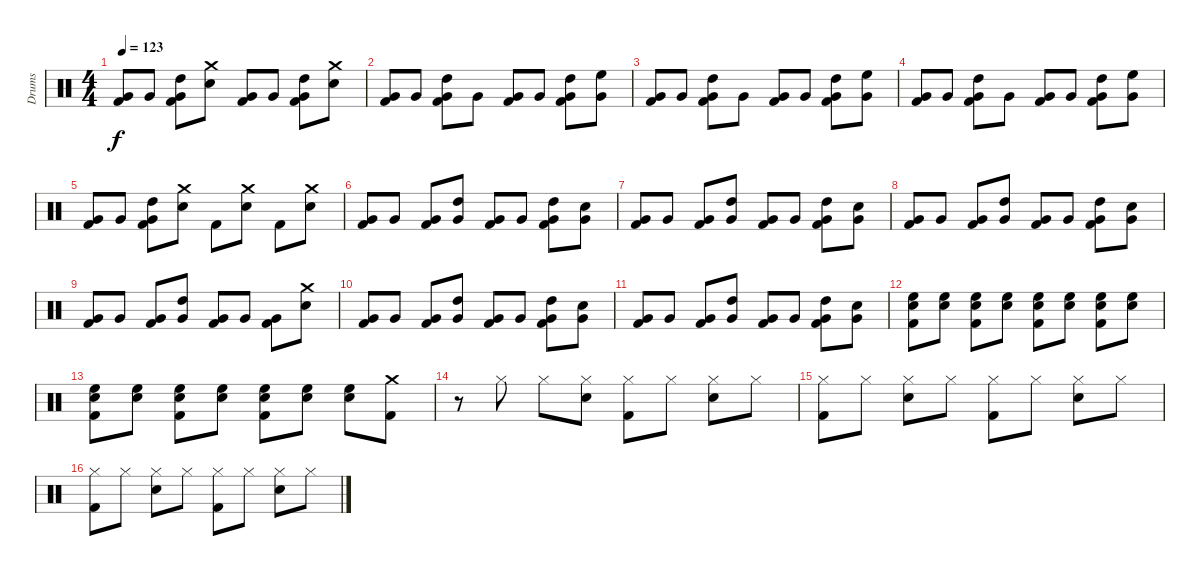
\track ("Drums" "Drums") {instrument percussion}
\staff {score}
\articulation defaults
\ts (4 4)
\tempo 123
\clef neutral
\ks c
("Very Low Tom (hit)" "Kick (hit) 2").8{dy f} "Very Low Tom (hit)".8 ("High Tom (hit)" "Very Low Tom (hit)" "Kick (hit) 2").8 ("Snare (hit) 2" "Crash medium (hit)").8 ("Very Low Tom (hit)" "Kick (hit) 2").8 "Very Low Tom (hit)".8 ("High Tom (hit)" "Very Low Tom (hit)" "Kick (hit) 2").8 ("Snare (hit) 2" "Crash medium (hit)").8 |
("Very Low Tom (hit)" "Kick (hit) 2").8 "Very Low Tom (hit)".8 ("High Tom (hit)" "Very Low Tom (hit)" "Kick (hit) 2").8 "Very Low Tom (hit)".8 ("Very Low Tom (hit)" "Kick (hit) 2").8 "Very Low Tom (hit)".8 ("High Tom (hit)" "Very Low Tom (hit)" "Kick (hit) 2").8 ("High Floor Tom (hit)" "Very Low Tom (hit)").8 |
("Very Low Tom (hit)" "Kick (hit) 2").8 "Very Low Tom (hit)".8 ("High Tom (hit)" "Very Low Tom (hit)" "Kick (hit) 2").8 "Very Low Tom (hit)".8 ("Very Low Tom (hit)" "Kick (hit) 2").8 "Very Low Tom (hit)".8 ("High Tom (hit)" "Very Low Tom (hit)" "Kick (hit) 2").8 ("High Floor Tom (hit)" "Very Low Tom (hit)").8 |
("Very Low Tom (hit)" "Kick (hit) 2").8 "Very Low Tom (hit)".8 ("High Tom (hit)" "Very Low Tom (hit)" "Kick (hit) 2").8 "Very Low Tom (hit)".8 ("Very Low Tom (hit)" "Kick (hit) 2").8 "Very Low Tom (hit)".8 ("High Tom (hit)" "Very Low Tom (hit)" "Kick (hit) 2").8 ("High Floor Tom (hit)" "Very Low Tom (hit)").8 |
("Very Low Tom (hit)" "Kick (hit) 2").8 "Very Low Tom (hit)".8 ("High Tom (hit)" "Very Low Tom (hit)" "Kick (hit) 2").8 ("Crash medium (hit)" "Snare (hit) 2").8 "Kick (hit) 2".8 ("Crash medium (hit)" "Snare (hit) 2").8 "Kick (hit) 2".8 ("Crash medium (hit)" "Snare (hit) 2").8 |
("Kick (hit) 2" "Very Low Tom (hit)").8 "Very Low Tom (hit)".8 ("Kick (hit) 2" "Very Low Tom (hit)").8 ("High Tom (hit)" "Very Low Tom (hit)").8 ("Kick (hit) 2" "Very Low Tom (hit)").8 "Very Low Tom (hit)".8 ("Kick (hit) 2" "High Tom (hit)" "Very Low Tom (hit)").8 ("Snare (hit) 2" "Very Low Tom (hit)").8 |
("Kick (hit) 2" "Very Low Tom (hit)").8 "Very Low Tom (hit)".8 ("Kick (hit) 2" "Very Low Tom (hit)").8 ("High Tom (hit)" "Very Low Tom (hit)").8 ("Kick (hit) 2" "Very Low Tom (hit)").8 "Very Low Tom (hit)".8 ("Kick (hit) 2" "High Tom (hit)" "Very Low Tom (hit)").8 ("Snare (hit) 2" "Very Low Tom (hit)").8 |
("Kick (hit) 2" "Very Low Tom (hit)").8 "Very Low Tom (hit)".8 ("Kick (hit) 2" "Very Low Tom (hit)").8 ("High Tom (hit)" "Very Low Tom (hit)").8 ("Kick (hit) 2" "Very Low Tom (hit)").8 "Very Low Tom (hit)".8 ("Kick (hit) 2" "High Tom (hit)" "Very Low Tom (hit)").8 ("Snare (hit) 2" "Very Low Tom (hit)").8 |
("Very Low Tom (hit)" "Kick (hit) 2").8 "Very Low Tom (hit)".8 ("Very Low Tom (hit)" "Kick (hit) 2").8 ("High Tom (hit)" "Very Low Tom (hit)").8 ("Very Low Tom (hit)" "Kick (hit) 2").8 "Very Low Tom (hit)".8 ("Very Low Tom (hit)" "Kick (hit) 2").8 ("Crash medium (hit)" "Snare (hit) 2").8 |
("Kick (hit) 2" "Very Low Tom (hit)").8 "Very Low Tom (hit)".8 ("Kick (hit) 2" "Very Low Tom (hit)").8 ("High Tom (hit)" "Very Low Tom (hit)").8 ("Kick (hit) 2" "Very Low Tom (hit)").8 "Very Low Tom (hit)".8 ("Kick (hit) 2" "High Tom (hit)" "Very Low Tom (hit)").8 ("Snare (hit) 2" "Very Low Tom (hit)").8 |
("Kick (hit) 2" "Very Low Tom (hit)").8 "Very Low Tom (hit)".8 ("Kick (hit) 2" "Very Low Tom (hit)").8 ("High Tom (hit)" "Very Low Tom (hit)").8 ("Kick (hit) 2" "Very Low Tom (hit)").8 "Very Low Tom (hit)".8 ("Kick (hit) 2" "High Tom (hit)" "Very Low Tom (hit)").8 ("Snare (hit) 2" "Very Low Tom (hit)").8 |
("High Floor Tom (hit)" "Snare (hit) 2" "Kick (hit) 2").8 ("High Floor Tom (hit)" "Snare (hit) 2").8 ("High Floor Tom (hit)" "Snare (hit) 2" "Kick (hit) 2").8 ("High Floor Tom (hit)" "Snare (hit) 2").8 ("High Floor Tom (hit)" "Snare (hit) 2" "Kick (hit) 2").8 ("High Floor Tom (hit)" "Snare (hit) 2").8 ("High Floor Tom (hit)" "Snare (hit) 2" "Kick (hit) 2").8 ("High Floor Tom (hit)" "Snare (hit) 2").8 |
("High Floor Tom (hit)" "Snare (hit) 2" "Kick (hit) 2").8 ("High Floor Tom (hit)" "Snare (hit) 2").8 ("High Floor Tom (hit)" "Snare (hit) 2" "Kick (hit) 2").8 ("High Floor Tom (hit)" "Snare (hit) 2").8 ("High Floor Tom (hit)" "Snare (hit) 2" "Kick (hit) 2").8 ("High Floor Tom (hit)" "Snare (hit) 2").8 ("High Floor Tom (hit)" "Snare (hit) 2").8 ("Kick (hit) 2" "Crash medium (hit)").8 |
r.8 "Hi-Hat (closed)".8 "Hi-Hat (closed)".8 ("Snare (hit) 2" "Hi-Hat (closed)").8 ("Kick (hit) 2" "Hi-Hat (closed)").8 "Hi-Hat (closed)".8 ("Snare (hit) 2" "Hi-Hat (closed)").8 "Hi-Hat (closed)".8 |
("Kick (hit) 2" "Hi-Hat (closed)").8 "Hi-Hat (closed)".8 ("Snare (hit) 2" "Hi-Hat (closed)").8 "Hi-Hat (closed)".8 ("Kick (hit) 2" "Hi-Hat (closed)").8 "Hi-Hat (closed)".8 ("Snare (hit) 2" "Hi-Hat (closed)").8 "Hi-Hat (closed)".8 |
("Kick (hit) 2" "Hi-Hat (closed)").8 "Hi-Hat (closed)".8 ("Snare (hit) 2" "Hi-Hat (closed)").8 "Hi-Hat (closed)".8 ("Kick (hit) 2" "Hi-Hat (closed)").8 "Hi-Hat (closed)".8 ("Snare (hit) 2" "Hi-Hat (closed)").8 "Hi-Hat (closed)".8
